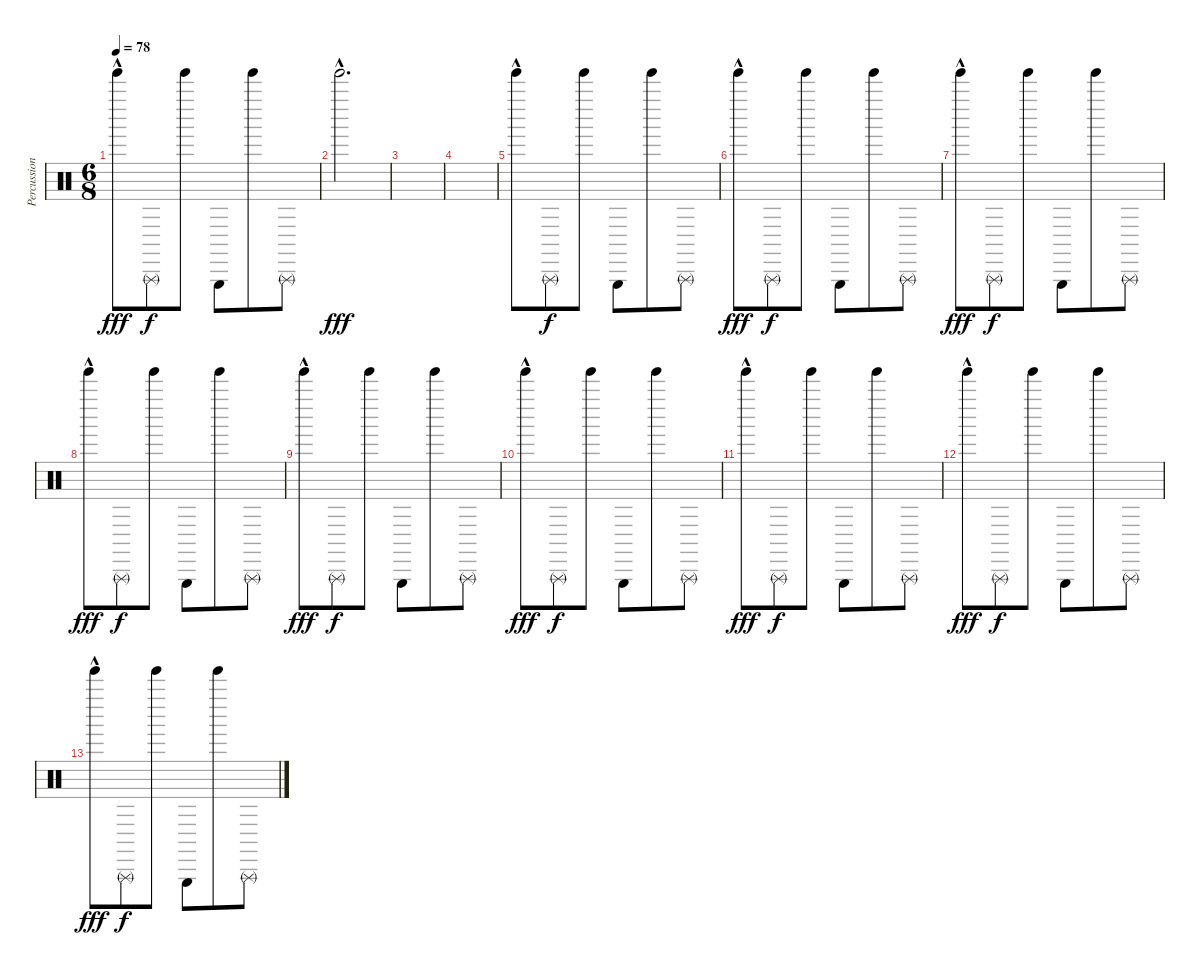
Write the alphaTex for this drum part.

\track ("Percussion" "Percussion") {instrument percussion}
\staff {score}
\articulation defaults
\ts (6 8)
\tempo 78
\clef neutral
\ks c "Tinkle Bell (hit)"{hac}.8{dy fff} "Triangle (rnute)".8{dy f} "Tinkle Bell (hit)".8 "Triangle (hit)".8 "Tinkle Bell (hit)".8 "Triangle (rnute)".8
|
"Tinkle Bell (hit)"{hac}.2{d dy fff} |
|
|
"Tinkle Bell (hit)"{hac}.8 "Triangle (rnute)".8{dy f} "Tinkle Bell (hit)".8 "Triangle (hit)".8 "Tinkle Bell (hit)".8 "Triangle (rnute)".8 |
"Tinkle Bell (hit)"{hac}.8{dy fff} "Triangle (rnute)".8{dy f} "Tinkle Bell (hit)".8 "Triangle (hit)".8 "Tinkle Bell (hit)".8 "Triangle (rnute)".8 |
"Tinkle Bell (hit)"{hac}.8{dy fff} "Triangle (rnute)".8{dy f} "Tinkle Bell (hit)".8 "Triangle (hit)".8 "Tinkle Bell (hit)".8 "Triangle (rnute)".8 |
"Tinkle Bell (hit)"{hac}.8{dy fff} "Triangle (rnute)".8{dy f} "Tinkle Bell (hit)".8 "Triangle (hit)".8 "Tinkle Bell (hit)".8 "Triangle (rnute)".8 |
"Tinkle Bell (hit)"{hac}.8{dy fff} "Triangle (rnute)".8{dy f} "Tinkle Bell (hit)".8 "Triangle (hit)".8 "Tinkle Bell (hit)".8 "Triangle (rnute)".8 |
"Tinkle Bell (hit)"{hac}.8{dy fff} "Triangle (rnute)".8{dy f} "Tinkle Bell (hit)".8 "Triangle (hit)".8 "Tinkle Bell (hit)".8 "Triangle (rnute)".8 |
"Tinkle Bell (hit)"{hac}.8{dy fff} "Triangle (rnute)".8{dy f} "Tinkle Bell (hit)".8 "Triangle (hit)".8 "Tinkle Bell (hit)".8 "Triangle (rnute)".8 |
"Tinkle Bell (hit)"{hac}.8{dy fff} "Triangle (rnute)".8{dy f} "Tinkle Bell (hit)".8 "Triangle (hit)".8 "Tinkle Bell (hit)".8 "Triangle (rnute)".8 |
"Tinkle Bell (hit)"{hac}.8{dy fff} "Triangle (rnute)".8{dy f} "Tinkle Bell (hit)".8 "Triangle (hit)".8 "Tinkle Bell (hit)".8 "Triangle (rnute)".8
